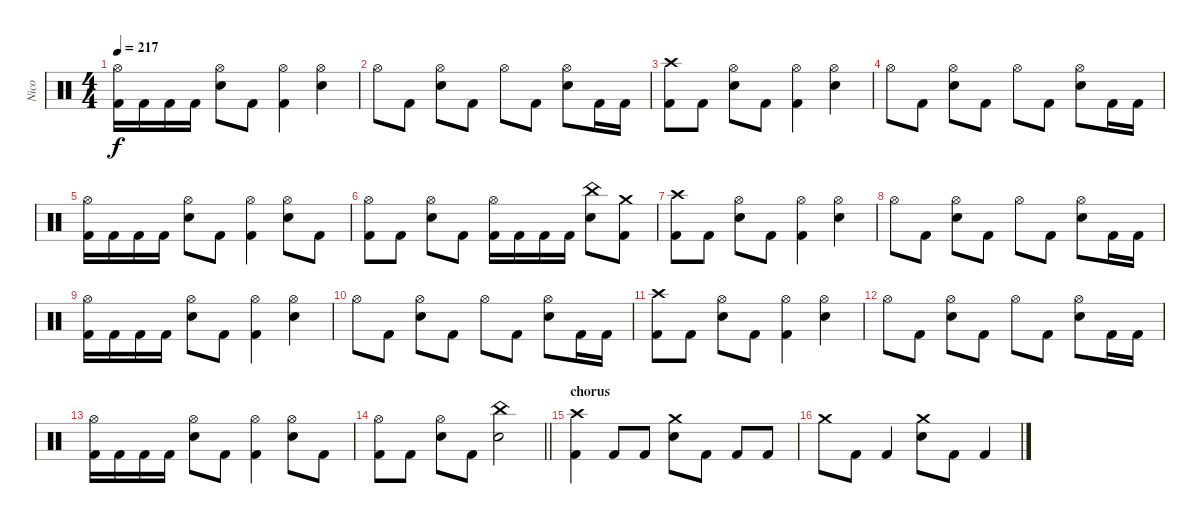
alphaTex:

\track ("Nico" "Nico") {instrument percussion}
\staff {score}
\articulation defaults
\ts (4 4)
\tempo 217
\clef neutral
\ks c
("Hi-Hat (open)" "Kick (hit) 2").16{dy f} "Kick (hit) 2".16 "Kick (hit) 2".16 "Kick (hit) 2".16 ("Hi-Hat (open)" "Electric Snare (hit)").8 "Kick (hit) 2".8 ("Hi-Hat (open)" "Kick (hit) 2").4 ("Hi-Hat (open)" "Electric Snare (hit)").4 |
"Hi-Hat (open)".8 "Kick (hit) 2".8 ("Hi-Hat (open)" "Electric Snare (hit)").8 "Kick (hit) 2".8 "Hi-Hat (open)".8 "Kick (hit) 2".8 ("Hi-Hat (open)" "Electric Snare (hit)").8 "Kick (hit) 2".16 "Kick (hit) 2".16 |
("Crash high (hit)" "Kick (hit) 2").8 "Kick (hit) 2".8 ("Hi-Hat (open)" "Electric Snare (hit)").8 "Kick (hit) 2".8 ("Hi-Hat (open)" "Kick (hit) 2").4 ("Hi-Hat (open)" "Electric Snare (hit)").4 |
"Hi-Hat (open)".8 "Kick (hit) 2".8 ("Hi-Hat (open)" "Electric Snare (hit)").8 "Kick (hit) 2".8 "Hi-Hat (open)".8 "Kick (hit) 2".8 ("Hi-Hat (open)" "Electric Snare (hit)").8 "Kick (hit) 2".16 "Kick (hit) 2".16 |
("Hi-Hat (open)" "Kick (hit) 2").16 "Kick (hit) 2".16 "Kick (hit) 2".16 "Kick (hit) 2".16 ("Hi-Hat (open)" "Electric Snare (hit)").8 "Kick (hit) 2".8 ("Hi-Hat (open)" "Kick (hit) 2").4 ("Hi-Hat (open)" "Electric Snare (hit)").8 "Kick (hit) 2".8 |
("Hi-Hat (open)" "Kick (hit) 2").8 "Kick (hit) 2".8 ("Hi-Hat (open)" "Electric Snare (hit)").8 "Kick (hit) 2".8 ("Hi-Hat (open)" "Kick (hit) 2").16 "Kick (hit) 2".16 "Kick (hit) 2".16 "Kick (hit) 2".16 ("China (hit)" "Electric Snare (hit)").8 ("Crash medium (hit)" "Kick (hit) 2").8 |
("Crash high (hit)" "Kick (hit) 2").8{balance 8} "Kick (hit) 2".8 ("Hi-Hat (open)" "Electric Snare (hit)").8 "Kick (hit) 2".8 ("Hi-Hat (open)" "Kick (hit) 2").4 ("Hi-Hat (open)" "Electric Snare (hit)").4 |
"Hi-Hat (open)".8 "Kick (hit) 2".8 ("Hi-Hat (open)" "Electric Snare (hit)").8 "Kick (hit) 2".8 "Hi-Hat (open)".8 "Kick (hit) 2".8 ("Hi-Hat (open)" "Electric Snare (hit)").8 "Kick (hit) 2".16 "Kick (hit) 2".16 |
("Hi-Hat (open)" "Kick (hit) 2").16 "Kick (hit) 2".16 "Kick (hit) 2".16 "Kick (hit) 2".16 ("Hi-Hat (open)" "Electric Snare (hit)").8 "Kick (hit) 2".8 ("Hi-Hat (open)" "Kick (hit) 2").4 ("Hi-Hat (open)" "Electric Snare (hit)").4 |
"Hi-Hat (open)".8 "Kick (hit) 2".8 ("Hi-Hat (open)" "Electric Snare (hit)").8 "Kick (hit) 2".8 "Hi-Hat (open)".8 "Kick (hit) 2".8 ("Hi-Hat (open)" "Electric Snare (hit)").8 "Kick (hit) 2".16 "Kick (hit) 2".16 |
("Crash high (hit)" "Kick (hit) 2").8 "Kick (hit) 2".8 ("Hi-Hat (open)" "Electric Snare (hit)").8 "Kick (hit) 2".8 ("Hi-Hat (open)" "Kick (hit) 2").4 ("Hi-Hat (open)" "Electric Snare (hit)").4 |
"Hi-Hat (open)".8 "Kick (hit) 2".8 ("Hi-Hat (open)" "Electric Snare (hit)").8 "Kick (hit) 2".8 "Hi-Hat (open)".8 "Kick (hit) 2".8 ("Hi-Hat (open)" "Electric Snare (hit)").8 "Kick (hit) 2".16 "Kick (hit) 2".16 |
("Hi-Hat (open)" "Kick (hit) 2").16 "Kick (hit) 2".16 "Kick (hit) 2".16 "Kick (hit) 2".16 ("Hi-Hat (open)" "Electric Snare (hit)").8 "Kick (hit) 2".8 ("Hi-Hat (open)" "Kick (hit) 2").4 ("Hi-Hat (open)" "Electric Snare (hit)").8 "Kick (hit) 2".8 |
\barLineRight lightlight
("Hi-Hat (open)" "Kick (hit) 2").8 "Kick (hit) 2".8 ("Hi-Hat (open)" "Electric Snare (hit)").8 "Kick (hit) 2".8 ("China (hit)" "Electric Snare (hit)").2 |
\section ("" "chorus")
("Crash high (hit)" "Kick (hit) 2").4 "Kick (hit) 2".8 "Kick (hit) 2".8 ("Crash medium (hit)" "Electric Snare (hit)").8 "Kick (hit) 2".8 "Kick (hit) 2".8 "Kick (hit) 2".8 |
"Crash medium (hit)".8 "Kick (hit) 2".8 "Kick (hit) 2".4 ("Crash medium (hit)" "Electric Snare (hit)").8 "Kick (hit) 2".8 "Kick (hit) 2".4
